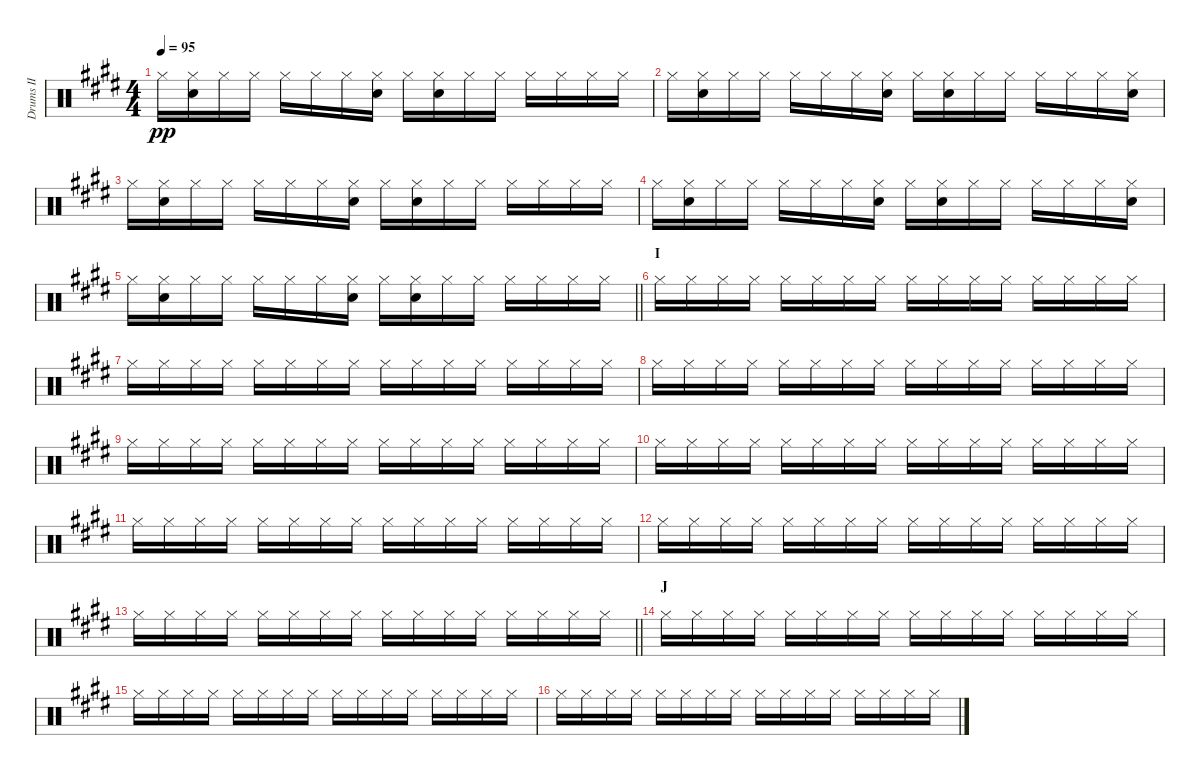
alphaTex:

\track ("Drums II" "Drums II") {instrument percussion}
\staff {score}
\articulation defaults
\ts (4 4)
\tempo 95
\clef neutral
\ks e "Hi-Hat (closed)".16{dy pp}
("Hi-Hat (closed)" "Snare (hit) 2").16 "Hi-Hat (closed)".16 "Hi-Hat (closed)".16 "Hi-Hat (closed)".16 "Hi-Hat (closed)".16 "Hi-Hat (closed)".16 ("Hi-Hat (closed)" "Snare (hit) 2").16 "Hi-Hat (closed)".16 ("Hi-Hat (closed)" "Snare (hit) 2").16 "Hi-Hat (closed)".16 "Hi-Hat (closed)".16 "Hi-Hat (closed)".16 "Hi-Hat (closed)".16 "Hi-Hat (closed)".16 "Hi-Hat (closed)".16 |
"Hi-Hat (closed)".16 ("Hi-Hat (closed)" "Snare (hit) 2").16 "Hi-Hat (closed)".16 "Hi-Hat (closed)".16 "Hi-Hat (closed)".16 "Hi-Hat (closed)".16 "Hi-Hat (closed)".16 ("Hi-Hat (closed)" "Snare (hit) 2").16 "Hi-Hat (closed)".16 ("Hi-Hat (closed)" "Snare (hit) 2").16 "Hi-Hat (closed)".16 "Hi-Hat (closed)".16 "Hi-Hat (closed)".16 "Hi-Hat (closed)".16 "Hi-Hat (closed)".16 ("Hi-Hat (closed)" "Snare (hit) 2").16 |
"Hi-Hat (closed)".16 ("Hi-Hat (closed)" "Snare (hit) 2").16 "Hi-Hat (closed)".16 "Hi-Hat (closed)".16 "Hi-Hat (closed)".16 "Hi-Hat (closed)".16 "Hi-Hat (closed)".16 ("Hi-Hat (closed)" "Snare (hit) 2").16 "Hi-Hat (closed)".16 ("Hi-Hat (closed)" "Snare (hit) 2").16 "Hi-Hat (closed)".16 "Hi-Hat (closed)".16 "Hi-Hat (closed)".16 "Hi-Hat (closed)".16 "Hi-Hat (closed)".16 "Hi-Hat (closed)".16 |
"Hi-Hat (closed)".16 ("Hi-Hat (closed)" "Snare (hit) 2").16 "Hi-Hat (closed)".16 "Hi-Hat (closed)".16 "Hi-Hat (closed)".16 "Hi-Hat (closed)".16 "Hi-Hat (closed)".16 ("Hi-Hat (closed)" "Snare (hit) 2").16 "Hi-Hat (closed)".16 ("Hi-Hat (closed)" "Snare (hit) 2").16 "Hi-Hat (closed)".16 "Hi-Hat (closed)".16 "Hi-Hat (closed)".16 "Hi-Hat (closed)".16 "Hi-Hat (closed)".16 ("Hi-Hat (closed)" "Snare (hit) 2").16 |
\barLineRight lightlight "Hi-Hat (closed)".16
("Hi-Hat (closed)" "Snare (hit) 2").16 "Hi-Hat (closed)".16 "Hi-Hat (closed)".16 "Hi-Hat (closed)".16 "Hi-Hat (closed)".16 "Hi-Hat (closed)".16 ("Hi-Hat (closed)" "Snare (hit) 2").16 "Hi-Hat (closed)".16 ("Hi-Hat (closed)" "Snare (hit) 2").16 "Hi-Hat (closed)".16 "Hi-Hat (closed)".16 "Hi-Hat (closed)".16 "Hi-Hat (closed)".16 "Hi-Hat (closed)".16 "Hi-Hat (closed)".16 |
\section ("" "I")
"Hi-Hat (closed)".16 "Hi-Hat (closed)".16 "Hi-Hat (closed)".16 "Hi-Hat (closed)".16 "Hi-Hat (closed)".16 "Hi-Hat (closed)".16 "Hi-Hat (closed)".16 "Hi-Hat (closed)".16 "Hi-Hat (closed)".16 "Hi-Hat (closed)".16 "Hi-Hat (closed)".16 "Hi-Hat (closed)".16 "Hi-Hat (closed)".16 "Hi-Hat (closed)".16 "Hi-Hat (closed)".16 "Hi-Hat (closed)".16 |
"Hi-Hat (closed)".16 "Hi-Hat (closed)".16 "Hi-Hat (closed)".16 "Hi-Hat (closed)".16 "Hi-Hat (closed)".16 "Hi-Hat (closed)".16 "Hi-Hat (closed)".16 "Hi-Hat (closed)".16 "Hi-Hat (closed)".16 "Hi-Hat (closed)".16 "Hi-Hat (closed)".16 "Hi-Hat (closed)".16 "Hi-Hat (closed)".16 "Hi-Hat (closed)".16 "Hi-Hat (closed)".16 "Hi-Hat (closed)".16 |
"Hi-Hat (closed)".16 "Hi-Hat (closed)".16 "Hi-Hat (closed)".16 "Hi-Hat (closed)".16 "Hi-Hat (closed)".16 "Hi-Hat (closed)".16 "Hi-Hat (closed)".16 "Hi-Hat (closed)".16 "Hi-Hat (closed)".16 "Hi-Hat (closed)".16 "Hi-Hat (closed)".16 "Hi-Hat (closed)".16 "Hi-Hat (closed)".16 "Hi-Hat (closed)".16 "Hi-Hat (closed)".16 "Hi-Hat (closed)".16 |
"Hi-Hat (closed)".16 "Hi-Hat (closed)".16 "Hi-Hat (closed)".16 "Hi-Hat (closed)".16 "Hi-Hat (closed)".16 "Hi-Hat (closed)".16 "Hi-Hat (closed)".16 "Hi-Hat (closed)".16 "Hi-Hat (closed)".16 "Hi-Hat (closed)".16 "Hi-Hat (closed)".16 "Hi-Hat (closed)".16 "Hi-Hat (closed)".16 "Hi-Hat (closed)".16 "Hi-Hat (closed)".16 "Hi-Hat (closed)".16 |
"Hi-Hat (closed)".16 "Hi-Hat (closed)".16 "Hi-Hat (closed)".16 "Hi-Hat (closed)".16 "Hi-Hat (closed)".16 "Hi-Hat (closed)".16 "Hi-Hat (closed)".16 "Hi-Hat (closed)".16 "Hi-Hat (closed)".16 "Hi-Hat (closed)".16 "Hi-Hat (closed)".16 "Hi-Hat (closed)".16 "Hi-Hat (closed)".16 "Hi-Hat (closed)".16 "Hi-Hat (closed)".16 "Hi-Hat (closed)".16 |
"Hi-Hat (closed)".16 "Hi-Hat (closed)".16 "Hi-Hat (closed)".16 "Hi-Hat (closed)".16 "Hi-Hat (closed)".16 "Hi-Hat (closed)".16 "Hi-Hat (closed)".16 "Hi-Hat (closed)".16 "Hi-Hat (closed)".16 "Hi-Hat (closed)".16 "Hi-Hat (closed)".16 "Hi-Hat (closed)".16 "Hi-Hat (closed)".16 "Hi-Hat (closed)".16 "Hi-Hat (closed)".16 "Hi-Hat (closed)".16 |
"Hi-Hat (closed)".16 "Hi-Hat (closed)".16 "Hi-Hat (closed)".16 "Hi-Hat (closed)".16 "Hi-Hat (closed)".16 "Hi-Hat (closed)".16 "Hi-Hat (closed)".16 "Hi-Hat (closed)".16 "Hi-Hat (closed)".16 "Hi-Hat (closed)".16 "Hi-Hat (closed)".16 "Hi-Hat (closed)".16 "Hi-Hat (closed)".16 "Hi-Hat (closed)".16 "Hi-Hat (closed)".16 "Hi-Hat (closed)".16 |
\barLineRight lightlight "Hi-Hat (closed)".16 "Hi-Hat (closed)".16 "Hi-Hat (closed)".16 "Hi-Hat (closed)".16 "Hi-Hat (closed)".16 "Hi-Hat (closed)".16 "Hi-Hat (closed)".16 "Hi-Hat (closed)".16 "Hi-Hat (closed)".16 "Hi-Hat (closed)".16 "Hi-Hat (closed)".16 "Hi-Hat (closed)".16 "Hi-Hat (closed)".16 "Hi-Hat (closed)".16 "Hi-Hat (closed)".16 "Hi-Hat (closed)".16
|
\section ("" "J")
"Hi-Hat (closed)".16 "Hi-Hat (closed)".16 "Hi-Hat (closed)".16 "Hi-Hat (closed)".16 "Hi-Hat (closed)".16 "Hi-Hat (closed)".16 "Hi-Hat (closed)".16 "Hi-Hat (closed)".16 "Hi-Hat (closed)".16 "Hi-Hat (closed)".16 "Hi-Hat (closed)".16 "Hi-Hat (closed)".16 "Hi-Hat (closed)".16 "Hi-Hat (closed)".16 "Hi-Hat (closed)".16 "Hi-Hat (closed)".16 |
"Hi-Hat (closed)".16 "Hi-Hat (closed)".16 "Hi-Hat (closed)".16 "Hi-Hat (closed)".16 "Hi-Hat (closed)".16 "Hi-Hat (closed)".16 "Hi-Hat (closed)".16 "Hi-Hat (closed)".16 "Hi-Hat (closed)".16 "Hi-Hat (closed)".16 "Hi-Hat (closed)".16 "Hi-Hat (closed)".16 "Hi-Hat (closed)".16 "Hi-Hat (closed)".16 "Hi-Hat (closed)".16 "Hi-Hat (closed)".16 |
"Hi-Hat (closed)".16 "Hi-Hat (closed)".16 "Hi-Hat (closed)".16 "Hi-Hat (closed)".16 "Hi-Hat (closed)".16 "Hi-Hat (closed)".16 "Hi-Hat (closed)".16 "Hi-Hat (closed)".16 "Hi-Hat (closed)".16 "Hi-Hat (closed)".16 "Hi-Hat (closed)".16 "Hi-Hat (closed)".16 "Hi-Hat (closed)".16 "Hi-Hat (closed)".16 "Hi-Hat (closed)".16 "Hi-Hat (closed)".16
